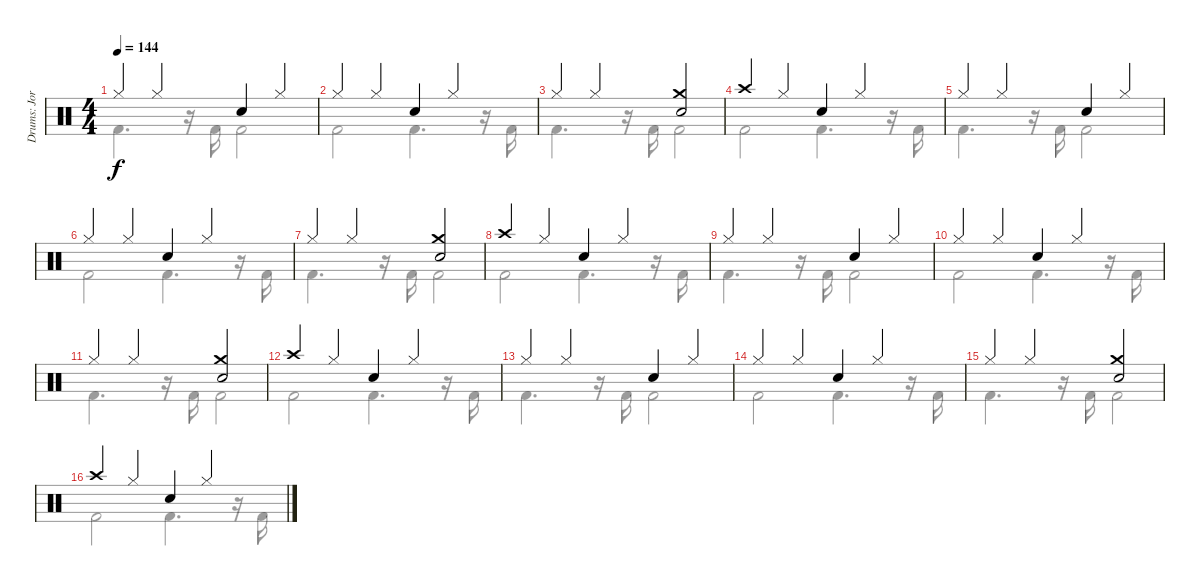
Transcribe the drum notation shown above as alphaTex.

\track ("Drums: Jorg" "Drums: Jor") {instrument percussion}
\staff {score}
\articulation defaults
\voice
\ts (4 4)
\tempo 144
\clef neutral
\ks c "Hi-Hat (closed)".4{dy f} "Hi-Hat (closed)".4 "Snare (hit) 2".4 "Hi-Hat (closed)".4
|
"Hi-Hat (closed)".4 "Hi-Hat (closed)".4 "Snare (hit) 2".4 "Hi-Hat (closed)".4 |
"Hi-Hat (closed)".4 "Hi-Hat (closed)".4 ("Crash medium (hit)" "Snare (hit) 2").2 |
"Crash high (hit)".4 "Hi-Hat (closed)".4 "Snare (hit) 2".4 "Hi-Hat (closed)".4 |
"Hi-Hat (closed)".4 "Hi-Hat (closed)".4 "Snare (hit) 2".4 "Hi-Hat (closed)".4 |
"Hi-Hat (closed)".4 "Hi-Hat (closed)".4 "Snare (hit) 2".4 "Hi-Hat (closed)".4 |
"Hi-Hat (closed)".4 "Hi-Hat (closed)".4 ("Crash medium (hit)" "Snare (hit) 2").2 |
"Crash high (hit)".4 "Hi-Hat (closed)".4 "Snare (hit) 2".4 "Hi-Hat (closed)".4 |
"Hi-Hat (closed)".4 "Hi-Hat (closed)".4 "Snare (hit) 2".4 "Hi-Hat (closed)".4 |
"Hi-Hat (closed)".4 "Hi-Hat (closed)".4 "Snare (hit) 2".4 "Hi-Hat (closed)".4 |
"Hi-Hat (closed)".4 "Hi-Hat (closed)".4 ("Crash medium (hit)" "Snare (hit) 2").2 |
"Crash high (hit)".4 "Hi-Hat (closed)".4 "Snare (hit) 2".4 "Hi-Hat (closed)".4 |
"Hi-Hat (closed)".4 "Hi-Hat (closed)".4 "Snare (hit) 2".4 "Hi-Hat (closed)".4 |
"Hi-Hat (closed)".4 "Hi-Hat (closed)".4 "Snare (hit) 2".4 "Hi-Hat (closed)".4 |
"Hi-Hat (closed)".4 "Hi-Hat (closed)".4 ("Crash medium (hit)" "Snare (hit) 2").2 |
"Crash high (hit)".4 "Hi-Hat (closed)".4 "Snare (hit) 2".4 "Hi-Hat (closed)".4
\voice
\clef neutral
\ottava regular
\simile none
\ks c "Kick (hit) 2".4{d dy f}
r.16 "Kick (hit) 2".16 "Kick (hit) 2".2 |
"Kick (hit) 2".2 "Kick (hit) 2".4{d} r.16 "Kick (hit) 2".16 |
"Kick (hit) 2".4{d} r.16 "Kick (hit) 2".16 "Kick (hit) 2".2 |
"Kick (hit) 2".2 "Kick (hit) 2".4{d} r.16 "Kick (hit) 2".16 |
"Kick (hit) 2".4{d} r.16 "Kick (hit) 2".16 "Kick (hit) 2".2 |
"Kick (hit) 2".2 "Kick (hit) 2".4{d} r.16 "Kick (hit) 2".16 |
"Kick (hit) 2".4{d} r.16 "Kick (hit) 2".16 "Kick (hit) 2".2 |
"Kick (hit) 2".2 "Kick (hit) 2".4{d} r.16 "Kick (hit) 2".16 |
"Kick (hit) 2".4{d} r.16 "Kick (hit) 2".16 "Kick (hit) 2".2 |
"Kick (hit) 2".2 "Kick (hit) 2".4{d} r.16 "Kick (hit) 2".16 |
"Kick (hit) 2".4{d} r.16 "Kick (hit) 2".16 "Kick (hit) 2".2 |
"Kick (hit) 2".2 "Kick (hit) 2".4{d} r.16 "Kick (hit) 2".16 |
"Kick (hit) 2".4{d} r.16 "Kick (hit) 2".16 "Kick (hit) 2".2 |
"Kick (hit) 2".2 "Kick (hit) 2".4{d} r.16 "Kick (hit) 2".16 |
"Kick (hit) 2".4{d} r.16 "Kick (hit) 2".16 "Kick (hit) 2".2 |
"Kick (hit) 2".2 "Kick (hit) 2".4{d} r.16 "Kick (hit) 2".16
